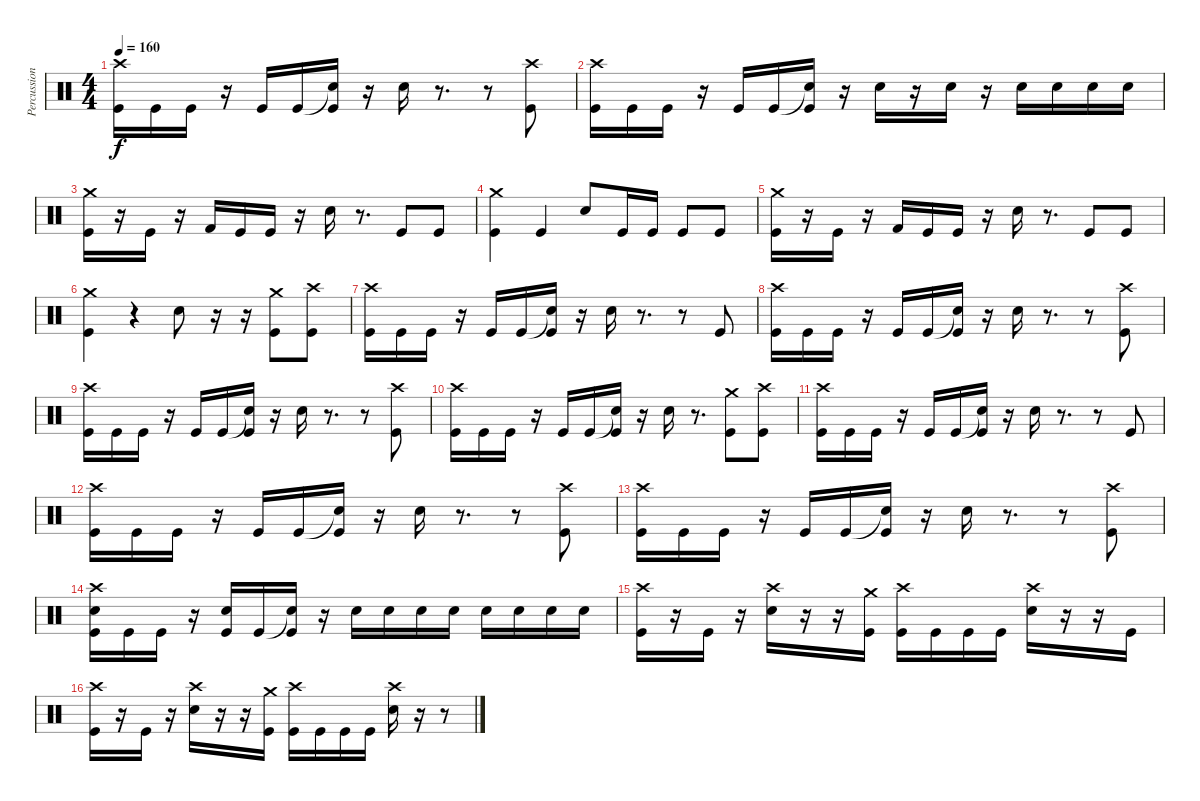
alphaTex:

\track ("Percussion" "Percussion") {instrument percussion}
\staff {score}
\articulation defaults
\ts (4 4)
\tempo 160
\clef neutral
\ks c
("Crash high (hit)" "Kick (hit)").16{dy f} "Kick (hit)".16 "Kick (hit)".16 r.16 "Kick (hit)".16 "Kick (hit)".16 ("Snare (hit)"{t} "Kick (hit)").16 r.16 "Snare (hit) 2".16 r.8{d} r.8 ("Crash high (hit)" "Kick (hit)").8 |
("Crash high (hit)" "Kick (hit)").16 "Kick (hit)".16 "Kick (hit)".16 r.16 "Kick (hit)".16 "Kick (hit)".16 ("Snare (hit)"{t} "Kick (hit)").16 r.16 "Snare (hit) 2".16 r.16 "Snare (hit) 2".16 r.16 "Snare (hit) 2".16 "Snare (hit) 2".16 "Snare (hit) 2".16 "Snare (hit) 2".16 |
("Crash medium (hit)" "Kick (hit)").16 r.16 "Kick (hit)".16 r.16 "Kick (hit) 2".16 "Kick (hit)".16 "Kick (hit)".16 r.16 "Snare (hit) 2".16 r.8{d} "Kick (hit)".8 "Kick (hit)".8 |
("Crash medium (hit)" "Kick (hit)").4 "Kick (hit)".4 "Snare (hit) 2".8 "Kick (hit)".16 "Kick (hit)".16 "Kick (hit)".8 "Kick (hit)".8 |
("Crash medium (hit)" "Kick (hit)").16 r.16 "Kick (hit)".16 r.16 "Kick (hit) 2".16 "Kick (hit)".16 "Kick (hit)".16 r.16 "Snare (hit) 2".16 r.8{d} "Kick (hit)".8 "Kick (hit)".8 |
("Crash medium (hit)" "Kick (hit)").4 r.4 "Snare (hit) 2".8 r.16 r.16 ("Crash medium (hit)" "Kick (hit)").8 ("Crash high (hit)" "Kick (hit)").8 |
("Crash high (hit)" "Kick (hit)").16 "Kick (hit)".16 "Kick (hit)".16 r.16 "Kick (hit)".16 "Kick (hit)".16 ("Snare (hit)"{t} "Kick (hit)").16 r.16 "Snare (hit) 2".16 r.8{d} r.8 "Kick (hit)".8 |
("Crash high (hit)" "Kick (hit)").16 "Kick (hit)".16 "Kick (hit)".16 r.16 "Kick (hit)".16 "Kick (hit)".16 ("Snare (hit)"{t} "Kick (hit)").16 r.16 "Snare (hit) 2".16 r.8{d} r.8 ("Crash high (hit)" "Kick (hit)").8 |
("Crash high (hit)" "Kick (hit)").16 "Kick (hit)".16 "Kick (hit)".16 r.16 "Kick (hit)".16 "Kick (hit)".16 ("Snare (hit)"{t} "Kick (hit)").16 r.16 "Snare (hit) 2".16 r.8{d} r.8 ("Crash high (hit)" "Kick (hit)").8 |
("Crash high (hit)" "Kick (hit)").16 "Kick (hit)".16 "Kick (hit)".16 r.16 "Kick (hit)".16 "Kick (hit)".16 ("Snare (hit)"{t} "Kick (hit)").16 r.16 "Snare (hit) 2".16 r.8{d} ("Crash medium (hit)" "Kick (hit)").8 ("Crash high (hit)" "Kick (hit)").8 |
("Crash high (hit)" "Kick (hit)").16 "Kick (hit)".16 "Kick (hit)".16 r.16 "Kick (hit)".16 "Kick (hit)".16 ("Snare (hit)"{t} "Kick (hit)").16 r.16 "Snare (hit) 2".16 r.8{d} r.8 "Kick (hit)".8 |
("Crash high (hit)" "Kick (hit)").16 "Kick (hit)".16 "Kick (hit)".16 r.16 "Kick (hit)".16 "Kick (hit)".16 ("Snare (hit)"{t} "Kick (hit)").16 r.16 "Snare (hit) 2".16 r.8{d} r.8 ("Crash high (hit)" "Kick (hit)").8 |
("Crash high (hit)" "Kick (hit)").16 "Kick (hit)".16 "Kick (hit)".16 r.16 "Kick (hit)".16 "Kick (hit)".16 ("Snare (hit)"{t} "Kick (hit)").16 r.16 "Snare (hit) 2".16 r.8{d} r.8 ("Crash high (hit)" "Kick (hit)").8 |
("Crash high (hit)" "Snare (hit) 2" "Kick (hit)").16 "Kick (hit)".16 "Kick (hit)".16 r.16 ("Snare (hit) 2" "Kick (hit)").16 "Kick (hit)".16 ("Snare (hit)"{t} "Kick (hit)").16 r.16 "Snare (hit) 2".16 "Snare (hit) 2".16 "Snare (hit) 2".16 "Snare (hit) 2".16 "Snare (hit) 2".16 "Snare (hit) 2".16 "Snare (hit) 2".16 "Snare (hit) 2".16 |
("Crash high (hit)" "Kick (hit)").16 r.16 "Kick (hit)".16 r.16 ("Crash high (hit)" "Snare (hit) 2").16 r.16 r.16 ("Crash medium (hit)" "Kick (hit)").16 ("Crash high (hit)" "Kick (hit)").16 "Kick (hit)".16 "Kick (hit)".16 "Kick (hit)".16 ("Crash high (hit)" "Snare (hit) 2").16 r.16 r.16 "Kick (hit)".16 |
("Crash high (hit)" "Kick (hit)").16 r.16 "Kick (hit)".16 r.16 ("Crash high (hit)" "Snare (hit) 2").16 r.16 r.16 ("Crash medium (hit)" "Kick (hit)").16 ("Crash high (hit)" "Kick (hit)").16 "Kick (hit)".16 "Kick (hit)".16 "Kick (hit)".16 ("Crash high (hit)" "Snare (hit) 2").16 r.16 r.8
